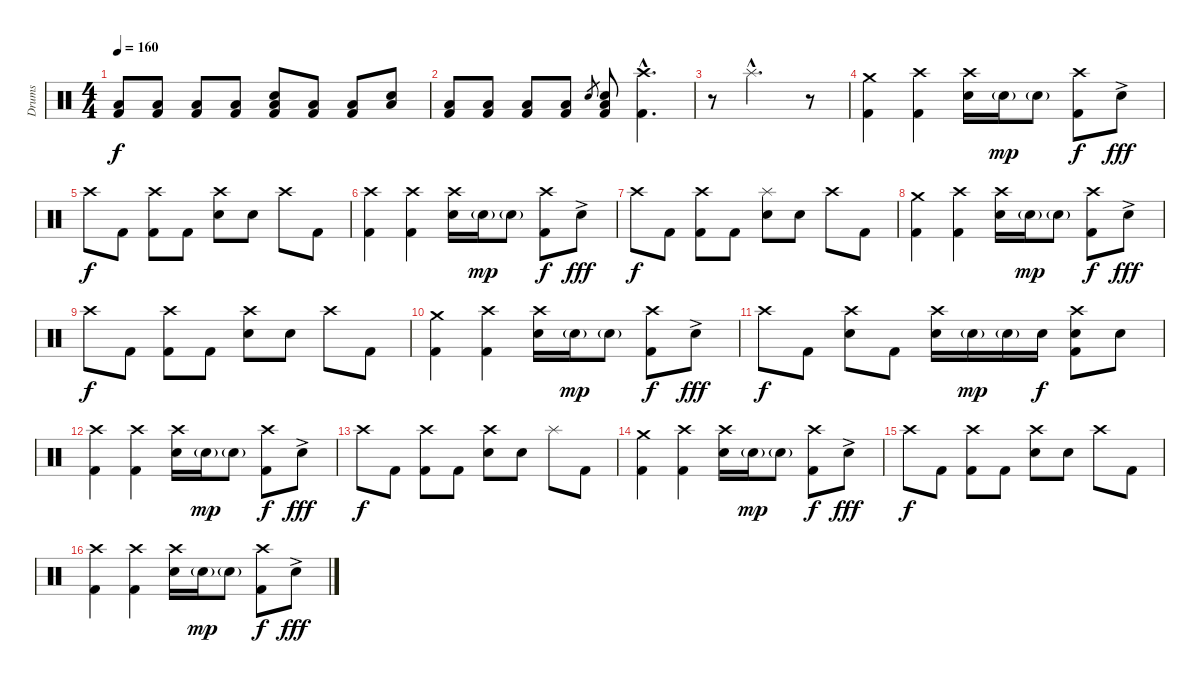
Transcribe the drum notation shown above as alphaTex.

\track ("Drums" "Drums") {instrument percussion}
\staff {score}
\articulation defaults
\ts (4 4)
\tempo 160
\clef neutral
\ks c
("Low Floor Tom (hit)" "Kick (hit) 2").8{dy f} ("Low Tom (hit)" "Kick (hit) 2").8 ("Low Floor Tom (hit)" "Kick (hit) 2").8 ("Low Floor Tom (hit)" "Kick (hit) 2").8 ("Snare (hit) 2" "Low Tom (hit)" "Kick (hit) 2").8 ("Low Floor Tom (hit)" "Kick (hit) 2").8 ("Low Floor Tom (hit)" "Kick (hit) 2").8 ("Snare (hit) 2" "Low Tom (hit)").8 |
("Low Floor Tom (hit)" "Kick (hit) 2").8 ("Low Tom (hit)" "Kick (hit) 2").8 ("Low Floor Tom (hit)" "Kick (hit) 2").8 ("Low Floor Tom (hit)" "Kick (hit) 2").8 "Snare (hit) 2".8{gr} ("Snare (hit) 2" "Low Tom (hit)" "Kick (hit) 2").8 ("Crash high (hit)"{hac} "Kick (hit) 2"{hac}).4{d} |
r.8 "Splash (hit)"{hac}.2{d} r.8 |
("Crash medium (hit)" "Kick (hit) 2").4 ("Crash high (hit)" "Kick (hit) 2").4 ("Crash high (hit)" "Snare (hit) 2").16 "Snare (hit) 2"{g}.16{dy mp} "Snare (hit) 2"{g}.8 ("Crash high (hit)" "Kick (hit) 2").8{dy f} "Snare (hit) 2"{ac}.8{dy fff} |
"Crash high (hit)".8{dy f} "Kick (hit) 2".8 ("Crash high (hit)" "Kick (hit) 2").8 "Kick (hit) 2".8 ("Crash high (hit)" "Snare (hit) 2").8 "Snare (hit) 2".8 "Crash high (hit)".8 "Kick (hit) 2".8 |
("Crash high (hit)" "Kick (hit) 2").4 ("Crash high (hit)" "Kick (hit) 2").4 ("Crash high (hit)" "Snare (hit) 2").16 "Snare (hit) 2"{g}.16{dy mp} "Snare (hit) 2"{g}.8 ("Crash high (hit)" "Kick (hit) 2").8{dy f} "Snare (hit) 2"{ac}.8{dy fff} |
"Crash high (hit)".8{dy f} "Kick (hit) 2".8 ("Crash high (hit)" "Kick (hit) 2").8 "Kick (hit) 2".8 ("Splash (hit)" "Snare (hit) 2").8 "Snare (hit) 2".8 "Crash high (hit)".8 "Kick (hit) 2".8 |
("Crash medium (hit)" "Kick (hit) 2").4 ("Crash high (hit)" "Kick (hit) 2").4 ("Crash high (hit)" "Snare (hit) 2").16 "Snare (hit) 2"{g}.16{dy mp} "Snare (hit) 2"{g}.8 ("Crash high (hit)" "Kick (hit) 2").8{dy f} "Snare (hit) 2"{ac}.8{dy fff} |
"Crash high (hit)".8{dy f} "Kick (hit) 2".8 ("Crash high (hit)" "Kick (hit) 2").8 "Kick (hit) 2".8 ("Crash high (hit)" "Snare (hit) 2").8 "Snare (hit) 2".8 "Crash high (hit)".8 "Kick (hit) 2".8 |
("Crash medium (hit)" "Kick (hit) 2").4 ("Crash high (hit)" "Kick (hit) 2").4 ("Crash high (hit)" "Snare (hit) 2").16 "Snare (hit) 2"{g}.16{dy mp} "Snare (hit) 2"{g}.8 ("Crash high (hit)" "Kick (hit) 2").8{dy f} "Snare (hit) 2"{ac}.8{dy fff} |
"Crash high (hit)".8{dy f} "Kick (hit) 2".8 ("Crash high (hit)" "Snare (hit) 2").8 "Kick (hit) 2".8 ("Crash high (hit)" "Snare (hit) 2").16 "Snare (hit) 2"{g}.16{dy mp} "Snare (hit) 2"{g}.16 "Snare (hit) 2".16{dy f} ("Crash high (hit)" "Snare (hit) 2" "Kick (hit) 2").8 "Snare (hit) 2".8 |
("Crash high (hit)" "Kick (hit) 2").4 ("Crash high (hit)" "Kick (hit) 2").4 ("Crash high (hit)" "Snare (hit) 2").16 "Snare (hit) 2"{g}.16{dy mp} "Snare (hit) 2"{g}.8 ("Crash high (hit)" "Kick (hit) 2").8{dy f} "Snare (hit) 2"{ac}.8{dy fff} |
"Crash high (hit)".8{dy f} "Kick (hit) 2".8 ("Crash high (hit)" "Kick (hit) 2").8 "Kick (hit) 2".8 ("Crash high (hit)" "Snare (hit) 2").8 "Snare (hit) 2".8 "Splash (hit)".8 "Kick (hit) 2".8 |
("Crash medium (hit)" "Kick (hit) 2").4 ("Crash high (hit)" "Kick (hit) 2").4 ("Crash high (hit)" "Snare (hit) 2").16 "Snare (hit) 2"{g}.16{dy mp} "Snare (hit) 2"{g}.8 ("Crash high (hit)" "Kick (hit) 2").8{dy f} "Snare (hit) 2"{ac}.8{dy fff} |
"Crash high (hit)".8{dy f} "Kick (hit) 2".8 ("Crash high (hit)" "Kick (hit) 2").8 "Kick (hit) 2".8 ("Crash high (hit)" "Snare (hit) 2").8 "Snare (hit) 2".8 "Crash high (hit)".8 "Kick (hit) 2".8 |
("Crash high (hit)" "Kick (hit) 2").4 ("Crash high (hit)" "Kick (hit) 2").4 ("Crash high (hit)" "Snare (hit) 2").16 "Snare (hit) 2"{g}.16{dy mp} "Snare (hit) 2"{g}.8 ("Crash high (hit)" "Kick (hit) 2").8{dy f} "Snare (hit) 2"{ac}.8{dy fff}
